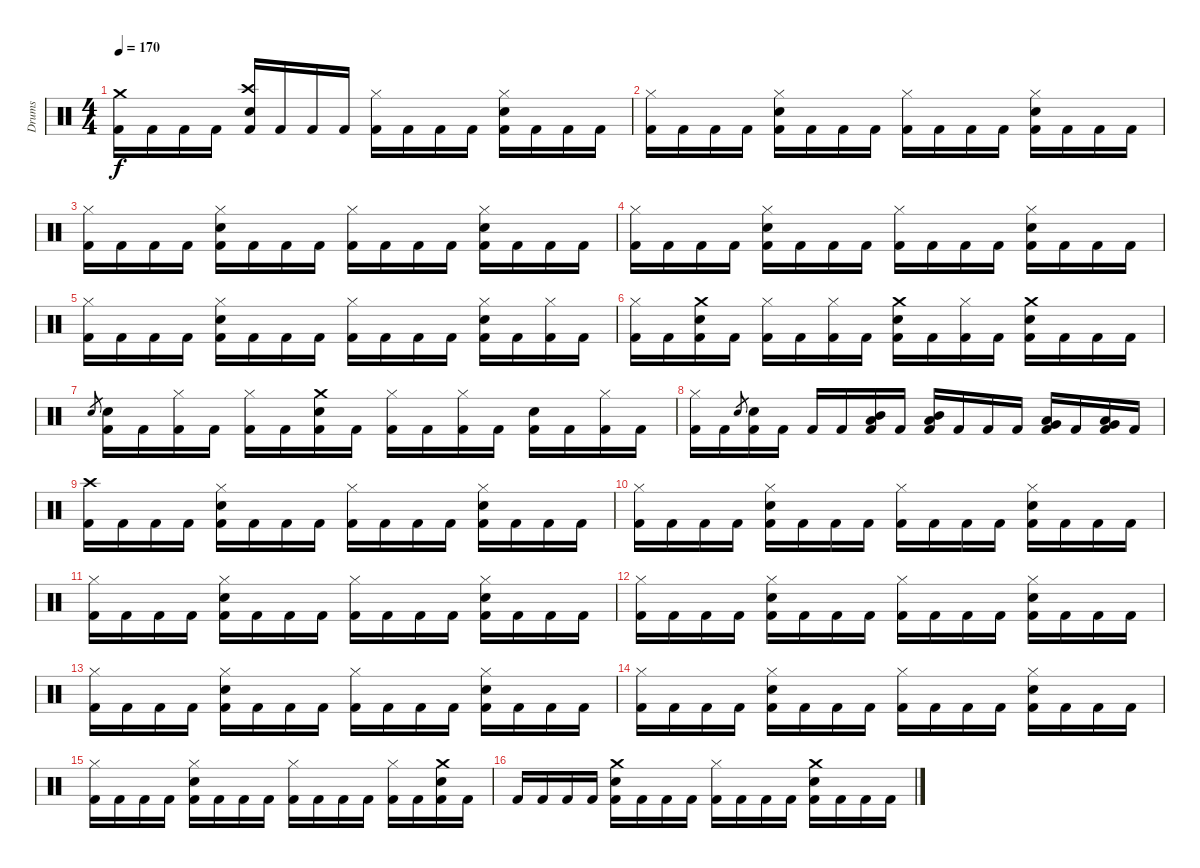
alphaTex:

\track ("Drums" "Drums") {instrument percussion}
\staff {score}
\articulation defaults
\ts (4 4)
\tempo 170
\clef neutral
\ks c
("Crash medium (hit)" "Kick (hit) 2").16{dy f} "Kick (hit) 2".16 "Kick (hit) 2".16 "Kick (hit) 2".16 ("Crash high (hit)" "Snare (hit) 2" "Kick (hit) 2").16 "Kick (hit) 2".16 "Kick (hit) 2".16 "Kick (hit) 2".16 ("Hi-Hat (closed)" "Kick (hit) 2").16 "Kick (hit) 2".16 "Kick (hit) 2".16 "Kick (hit) 2".16 ("Hi-Hat (closed)" "Snare (hit) 2" "Kick (hit) 2").16 "Kick (hit) 2".16 "Kick (hit) 2".16 "Kick (hit) 2".16 |
("Hi-Hat (closed)" "Kick (hit) 2").16 "Kick (hit) 2".16 "Kick (hit) 2".16 "Kick (hit) 2".16 ("Hi-Hat (closed)" "Snare (hit) 2" "Kick (hit) 2").16 "Kick (hit) 2".16 "Kick (hit) 2".16 "Kick (hit) 2".16 ("Hi-Hat (closed)" "Kick (hit) 2").16 "Kick (hit) 2".16 "Kick (hit) 2".16 "Kick (hit) 2".16 ("Hi-Hat (closed)" "Snare (hit) 2" "Kick (hit) 2").16 "Kick (hit) 2".16 "Kick (hit) 2".16 "Kick (hit) 2".16 |
("Hi-Hat (closed)" "Kick (hit) 2").16 "Kick (hit) 2".16 "Kick (hit) 2".16 "Kick (hit) 2".16 ("Hi-Hat (closed)" "Snare (hit) 2" "Kick (hit) 2").16 "Kick (hit) 2".16 "Kick (hit) 2".16 "Kick (hit) 2".16 ("Hi-Hat (closed)" "Kick (hit) 2").16 "Kick (hit) 2".16 "Kick (hit) 2".16 "Kick (hit) 2".16 ("Hi-Hat (closed)" "Snare (hit) 2" "Kick (hit) 2").16 "Kick (hit) 2".16 "Kick (hit) 2".16 "Kick (hit) 2".16 |
("Hi-Hat (closed)" "Kick (hit) 2").16 "Kick (hit) 2".16 "Kick (hit) 2".16 "Kick (hit) 2".16 ("Hi-Hat (closed)" "Snare (hit) 2" "Kick (hit) 2").16 "Kick (hit) 2".16 "Kick (hit) 2".16 "Kick (hit) 2".16 ("Hi-Hat (closed)" "Kick (hit) 2").16 "Kick (hit) 2".16 "Kick (hit) 2".16 "Kick (hit) 2".16 ("Hi-Hat (closed)" "Snare (hit) 2" "Kick (hit) 2").16 "Kick (hit) 2".16 "Kick (hit) 2".16 "Kick (hit) 2".16 |
("Hi-Hat (closed)" "Kick (hit) 2").16 "Kick (hit) 2".16 "Kick (hit) 2".16 "Kick (hit) 2".16 ("Hi-Hat (closed)" "Snare (hit) 2" "Kick (hit) 2").16 "Kick (hit) 2".16 "Kick (hit) 2".16 "Kick (hit) 2".16 ("Hi-Hat (closed)" "Kick (hit) 2").16 "Kick (hit) 2".16 "Kick (hit) 2".16 "Kick (hit) 2".16 ("Hi-Hat (closed)" "Snare (hit) 2" "Kick (hit) 2").16 "Kick (hit) 2".16 ("Hi-Hat (closed)" "Kick (hit) 2").16 "Kick (hit) 2".16 |
("Hi-Hat (closed)" "Kick (hit) 2").16 "Kick (hit) 2".16 ("Crash medium (hit)" "Snare (hit) 2" "Kick (hit) 2").16 "Kick (hit) 2".16 ("Hi-Hat (closed)" "Kick (hit) 2").16 "Kick (hit) 2".16 ("Hi-Hat (closed)" "Kick (hit) 2").16 "Kick (hit) 2".16 ("Crash medium (hit)" "Snare (hit) 2" "Kick (hit) 2").16 "Kick (hit) 2".16 ("Hi-Hat (closed)" "Kick (hit) 2").16 "Kick (hit) 2".16 ("Crash medium (hit)" "Snare (hit) 2" "Kick (hit) 2").16 "Kick (hit) 2".16 "Kick (hit) 2".16 "Kick (hit) 2".16 |
"Snare (hit) 2".8{gr} ("Snare (hit) 2" "Kick (hit) 2").16 "Kick (hit) 2".16 ("Hi-Hat (closed)" "Kick (hit) 2").16 "Kick (hit) 2".16 ("Hi-Hat (closed)" "Kick (hit) 2").16 "Kick (hit) 2".16 ("Crash medium (hit)" "Snare (hit) 2" "Kick (hit) 2").16 "Kick (hit) 2".16 ("Hi-Hat (closed)" "Kick (hit) 2").16 "Kick (hit) 2".16 ("Hi-Hat (closed)" "Kick (hit) 2").16 "Kick (hit) 2".16 ("Snare (hit) 2" "Kick (hit) 2").16 "Kick (hit) 2".16 ("Hi-Hat (closed)" "Kick (hit) 2").16 "Kick (hit) 2".16 |
("Hi-Hat (closed)" "Kick (hit) 2").16 "Kick (hit) 2".16 "Snare (hit) 2".8{gr} ("Snare (hit) 2" "Kick (hit) 2").16 "Kick (hit) 2".16 "Kick (hit) 2".16 "Kick (hit) 2".16 ("Mid Tom (hit)" "Low Tom (hit)" "Kick (hit) 2").16 "Kick (hit) 2".16 ("Mid Tom (hit)" "Low Tom (hit)" "Kick (hit) 2").16 "Kick (hit) 2".16 "Kick (hit) 2".16 "Kick (hit) 2".16 ("Low Tom (hit)" "Very Low Tom (hit)" "Kick (hit) 2").16 "Kick (hit) 2".16 ("Low Tom (hit)" "Very Low Tom (hit)" "Kick (hit) 2").16 "Kick (hit) 2".16 |
("Crash high (hit)" "Kick (hit) 2").16 "Kick (hit) 2".16 "Kick (hit) 2".16 "Kick (hit) 2".16 ("Hi-Hat (closed)" "Snare (hit) 2" "Kick (hit) 2").16 "Kick (hit) 2".16 "Kick (hit) 2".16 "Kick (hit) 2".16 ("Hi-Hat (closed)" "Kick (hit) 2").16 "Kick (hit) 2".16 "Kick (hit) 2".16 "Kick (hit) 2".16 ("Hi-Hat (closed)" "Snare (hit) 2" "Kick (hit) 2").16 "Kick (hit) 2".16 "Kick (hit) 2".16 "Kick (hit) 2".16 |
("Hi-Hat (closed)" "Kick (hit) 2").16 "Kick (hit) 2".16 "Kick (hit) 2".16 "Kick (hit) 2".16 ("Hi-Hat (closed)" "Snare (hit) 2" "Kick (hit) 2").16 "Kick (hit) 2".16 "Kick (hit) 2".16 "Kick (hit) 2".16 ("Hi-Hat (closed)" "Kick (hit) 2").16 "Kick (hit) 2".16 "Kick (hit) 2".16 "Kick (hit) 2".16 ("Hi-Hat (closed)" "Snare (hit) 2" "Kick (hit) 2").16 "Kick (hit) 2".16 "Kick (hit) 2".16 "Kick (hit) 2".16 |
("Hi-Hat (closed)" "Kick (hit) 2").16 "Kick (hit) 2".16 "Kick (hit) 2".16 "Kick (hit) 2".16 ("Hi-Hat (closed)" "Snare (hit) 2" "Kick (hit) 2").16 "Kick (hit) 2".16 "Kick (hit) 2".16 "Kick (hit) 2".16 ("Hi-Hat (closed)" "Kick (hit) 2").16 "Kick (hit) 2".16 "Kick (hit) 2".16 "Kick (hit) 2".16 ("Hi-Hat (closed)" "Snare (hit) 2" "Kick (hit) 2").16 "Kick (hit) 2".16 "Kick (hit) 2".16 "Kick (hit) 2".16 |
("Hi-Hat (closed)" "Kick (hit) 2").16 "Kick (hit) 2".16 "Kick (hit) 2".16 "Kick (hit) 2".16 ("Hi-Hat (closed)" "Snare (hit) 2" "Kick (hit) 2").16 "Kick (hit) 2".16 "Kick (hit) 2".16 "Kick (hit) 2".16 ("Hi-Hat (closed)" "Kick (hit) 2").16 "Kick (hit) 2".16 "Kick (hit) 2".16 "Kick (hit) 2".16 ("Hi-Hat (closed)" "Snare (hit) 2" "Kick (hit) 2").16 "Kick (hit) 2".16 "Kick (hit) 2".16 "Kick (hit) 2".16 |
("Hi-Hat (closed)" "Kick (hit) 2").16 "Kick (hit) 2".16 "Kick (hit) 2".16 "Kick (hit) 2".16 ("Hi-Hat (closed)" "Snare (hit) 2" "Kick (hit) 2").16 "Kick (hit) 2".16 "Kick (hit) 2".16 "Kick (hit) 2".16 ("Hi-Hat (closed)" "Kick (hit) 2").16 "Kick (hit) 2".16 "Kick (hit) 2".16 "Kick (hit) 2".16 ("Hi-Hat (closed)" "Snare (hit) 2" "Kick (hit) 2").16 "Kick (hit) 2".16 "Kick (hit) 2".16 "Kick (hit) 2".16 |
("Hi-Hat (closed)" "Kick (hit) 2").16 "Kick (hit) 2".16 "Kick (hit) 2".16 "Kick (hit) 2".16 ("Hi-Hat (closed)" "Snare (hit) 2" "Kick (hit) 2").16 "Kick (hit) 2".16 "Kick (hit) 2".16 "Kick (hit) 2".16 ("Hi-Hat (closed)" "Kick (hit) 2").16 "Kick (hit) 2".16 "Kick (hit) 2".16 "Kick (hit) 2".16 ("Hi-Hat (closed)" "Snare (hit) 2" "Kick (hit) 2").16 "Kick (hit) 2".16 "Kick (hit) 2".16 "Kick (hit) 2".16 |
("Hi-Hat (closed)" "Kick (hit) 2").16 "Kick (hit) 2".16 "Kick (hit) 2".16 "Kick (hit) 2".16 ("Hi-Hat (closed)" "Snare (hit) 2" "Kick (hit) 2").16 "Kick (hit) 2".16 "Kick (hit) 2".16 "Kick (hit) 2".16 ("Hi-Hat (closed)" "Kick (hit) 2").16 "Kick (hit) 2".16 "Kick (hit) 2".16 "Kick (hit) 2".16 ("Hi-Hat (closed)" "Kick (hit) 2").16 "Kick (hit) 2".16 ("Crash medium (hit)" "Snare (hit) 2" "Kick (hit) 2").16 "Kick (hit) 2".16 |
"Kick (hit) 2".16 "Kick (hit) 2".16 "Kick (hit) 2".16 "Kick (hit) 2".16 ("Crash medium (hit)" "Snare (hit) 2" "Kick (hit) 2").16 "Kick (hit) 2".16 "Kick (hit) 2".16 "Kick (hit) 2".16 ("Hi-Hat (closed)" "Kick (hit) 2").16 "Kick (hit) 2".16 "Kick (hit) 2".16 "Kick (hit) 2".16 ("Crash medium (hit)" "Snare (hit) 2" "Kick (hit) 2").16 "Kick (hit) 2".16 "Kick (hit) 2".16 "Kick (hit) 2".16
